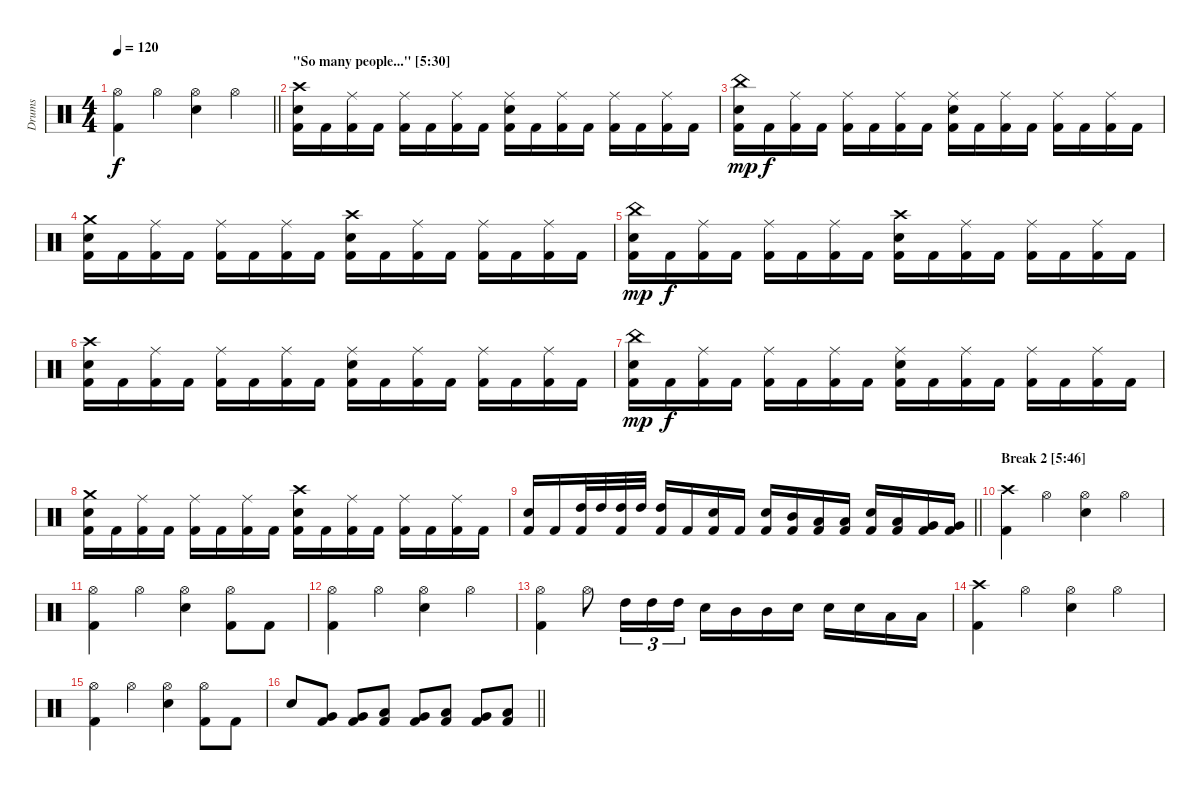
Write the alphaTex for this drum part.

\track ("Drums" "Drums") {instrument percussion}
\staff {score}
\articulation defaults
\ts (4 4)
\tempo 120
\clef neutral
\barLineRight lightlight
\ks c
("Hi-Hat (open)" "Kick (hit) 2").4{dy f} "Hi-Hat (open)".4 ("Hi-Hat (open)" "Snare (hit) 2").4 "Hi-Hat (open)".4 |
\section ("" "\"So many people...\" [5:30]")
("Crash high (hit)" "Snare (hit) 2" "Kick (hit) 2").16 "Kick (hit) 2".16 ("Ride (middle)" "Kick (hit) 2").16 "Kick (hit) 2".16 ("Ride (middle)" "Kick (hit) 2").16 "Kick (hit) 2".16 ("Ride (middle)" "Kick (hit) 2").16 "Kick (hit) 2".16 ("Ride (middle)" "Snare (hit) 2" "Kick (hit) 2").16 "Kick (hit) 2".16 ("Ride (middle)" "Kick (hit) 2").16 "Kick (hit) 2".16 ("Ride (middle)" "Kick (hit) 2").16 "Kick (hit) 2".16 ("Ride (middle)" "Kick (hit) 2").16 "Kick (hit) 2".16 |
("China (hit)" "Snare (hit) 2" "Kick (hit) 2").16{dy mp} "Kick (hit) 2".16{dy f} ("Ride (middle)" "Kick (hit) 2").16 "Kick (hit) 2".16 ("Ride (middle)" "Kick (hit) 2").16 "Kick (hit) 2".16 ("Ride (middle)" "Kick (hit) 2").16 "Kick (hit) 2".16 ("Ride (middle)" "Snare (hit) 2" "Kick (hit) 2").16 "Kick (hit) 2".16 ("Ride (middle)" "Kick (hit) 2").16 "Kick (hit) 2".16 ("Ride (middle)" "Kick (hit) 2").16 "Kick (hit) 2".16 ("Ride (middle)" "Kick (hit) 2").16 "Kick (hit) 2".16 |
("Crash medium (hit)" "Snare (hit) 2" "Kick (hit) 2").16 "Kick (hit) 2".16 ("Ride (middle)" "Kick (hit) 2").16 "Kick (hit) 2".16 ("Ride (middle)" "Kick (hit) 2").16 "Kick (hit) 2".16 ("Ride (middle)" "Kick (hit) 2").16 "Kick (hit) 2".16 ("Crash high (hit)" "Snare (hit) 2" "Kick (hit) 2").16 "Kick (hit) 2".16 ("Ride (middle)" "Kick (hit) 2").16 "Kick (hit) 2".16 ("Ride (middle)" "Kick (hit) 2").16 "Kick (hit) 2".16 ("Ride (middle)" "Kick (hit) 2").16 "Kick (hit) 2".16 |
("China (hit)" "Snare (hit) 2" "Kick (hit) 2").16{dy mp} "Kick (hit) 2".16{dy f} ("Ride (middle)" "Kick (hit) 2").16 "Kick (hit) 2".16 ("Ride (middle)" "Kick (hit) 2").16 "Kick (hit) 2".16 ("Ride (middle)" "Kick (hit) 2").16 "Kick (hit) 2".16 ("Crash high (hit)" "Snare (hit) 2" "Kick (hit) 2").16 "Kick (hit) 2".16 ("Ride (middle)" "Kick (hit) 2").16 "Kick (hit) 2".16 ("Ride (middle)" "Kick (hit) 2").16 "Kick (hit) 2".16 ("Ride (middle)" "Kick (hit) 2").16 "Kick (hit) 2".16 |
("Crash high (hit)" "Snare (hit) 2" "Kick (hit) 2").16 "Kick (hit) 2".16 ("Ride (middle)" "Kick (hit) 2").16 "Kick (hit) 2".16 ("Ride (middle)" "Kick (hit) 2").16 "Kick (hit) 2".16 ("Ride (middle)" "Kick (hit) 2").16 "Kick (hit) 2".16 ("Ride (middle)" "Snare (hit) 2" "Kick (hit) 2").16 "Kick (hit) 2".16 ("Ride (middle)" "Kick (hit) 2").16 "Kick (hit) 2".16 ("Ride (middle)" "Kick (hit) 2").16 "Kick (hit) 2".16 ("Ride (middle)" "Kick (hit) 2").16 "Kick (hit) 2".16 |
("China (hit)" "Snare (hit) 2" "Kick (hit) 2").16{dy mp} "Kick (hit) 2".16{dy f} ("Ride (middle)" "Kick (hit) 2").16 "Kick (hit) 2".16 ("Ride (middle)" "Kick (hit) 2").16 "Kick (hit) 2".16 ("Ride (middle)" "Kick (hit) 2").16 "Kick (hit) 2".16 ("Ride (middle)" "Snare (hit) 2" "Kick (hit) 2").16 "Kick (hit) 2".16 ("Ride (middle)" "Kick (hit) 2").16 "Kick (hit) 2".16 ("Ride (middle)" "Kick (hit) 2").16 "Kick (hit) 2".16 ("Ride (middle)" "Kick (hit) 2").16 "Kick (hit) 2".16 |
("Crash medium (hit)" "Snare (hit) 2" "Kick (hit) 2").16 "Kick (hit) 2".16 ("Ride (middle)" "Kick (hit) 2").16 "Kick (hit) 2".16 ("Ride (middle)" "Kick (hit) 2").16 "Kick (hit) 2".16 ("Ride (middle)" "Kick (hit) 2").16 "Kick (hit) 2".16 ("Crash high (hit)" "Snare (hit) 2" "Kick (hit) 2").16 "Kick (hit) 2".16 ("Ride (middle)" "Kick (hit) 2").16 "Kick (hit) 2".16 ("Ride (middle)" "Kick (hit) 2").16 "Kick (hit) 2".16 ("Ride (middle)" "Kick (hit) 2").16 "Kick (hit) 2".16 |
\barLineRight lightlight
("Snare (hit) 2" "Kick (hit) 2").16 "Kick (hit) 2".16 ("High Tom (hit)" "Kick (hit) 2").32 "High Tom (hit)".32 ("High Tom (hit)" "Kick (hit) 2").32 "High Tom (hit)".32 ("High Tom (hit)" "Kick (hit) 2").16 "Kick (hit) 2".16 ("Snare (hit) 2" "Kick (hit) 2").16 "Kick (hit) 2".16 ("Snare (hit) 2" "Kick (hit) 2").16 ("Mid Tom (hit)" "Kick (hit) 2").16 ("Low Tom (hit)" "Kick (hit) 2").16 ("Low Tom (hit)" "Kick (hit) 2").16 ("Snare (hit) 2" "Kick (hit) 2").16 ("Low Tom (hit)" "Kick (hit) 2").16 ("Very Low Tom (hit)" "Kick (hit) 2").16 ("Very Low Tom (hit)" "Kick (hit) 2").16 |
\section ("" "Break 2 [5:46]")
("Crash high (hit)" "Kick (hit) 2").4 "Hi-Hat (open)".4 ("Hi-Hat (open)" "Snare (hit) 2").4 "Hi-Hat (open)".4 |
("Hi-Hat (open)" "Kick (hit) 2").4 "Hi-Hat (open)".4 ("Hi-Hat (open)" "Snare (hit) 2").4 ("Hi-Hat (open)" "Kick (hit) 2").8 "Kick (hit) 2".8 |
("Hi-Hat (open)" "Kick (hit) 2").4 "Hi-Hat (open)".4 ("Hi-Hat (open)" "Snare (hit) 2").4 "Hi-Hat (open)".4 |
("Hi-Hat (open)" "Kick (hit) 2").4 "Hi-Hat (open)".8 "High Tom (hit)".16{tu (3 2)} "High Tom (hit)".16{tu (3 2)} "High Tom (hit)".16{tu (3 2)} "Snare (hit) 2".16 "Mid Tom (hit)".16 "Mid Tom (hit)".16 "Snare (hit) 2".16 "Snare (hit) 2".16 "Snare (hit) 2".16 "Low Tom (hit)".16 "Low Tom (hit)".16 |
("Crash high (hit)" "Kick (hit) 2").4 "Hi-Hat (open)".4 ("Hi-Hat (open)" "Snare (hit) 2").4 "Hi-Hat (open)".4 |
("Hi-Hat (open)" "Kick (hit) 2").4 "Hi-Hat (open)".4 ("Hi-Hat (open)" "Snare (hit) 2").4 ("Hi-Hat (open)" "Kick (hit) 2").8 "Kick (hit) 2".8 |
\barLineRight lightlight "Snare (hit) 2".8
("Very Low Tom (hit)" "Kick (hit) 2").8 ("Very Low Tom (hit)" "Kick (hit) 2").8 ("Low Tom (hit)" "Kick (hit) 2").8 ("Very Low Tom (hit)" "Kick (hit) 2").8 ("Low Tom (hit)" "Kick (hit) 2").8 ("Very Low Tom (hit)" "Kick (hit) 2").8 ("Low Tom (hit)" "Kick (hit) 2").8
